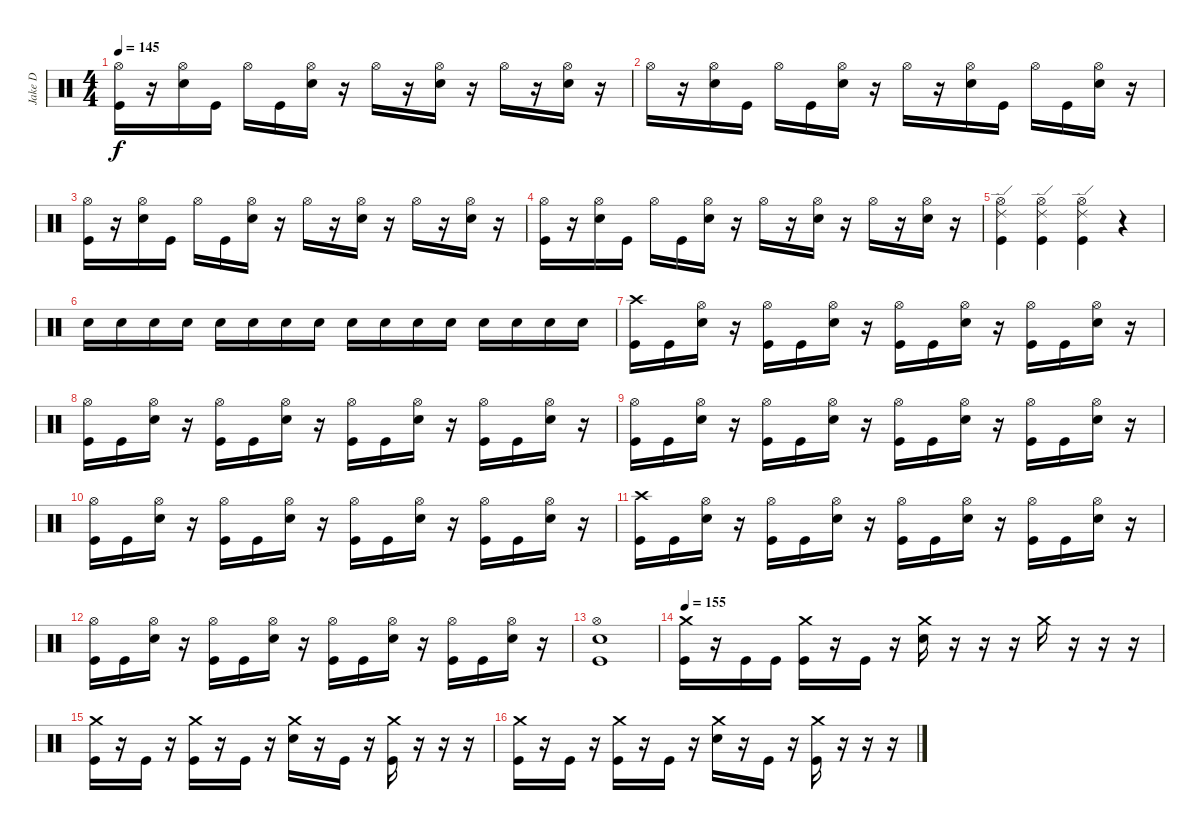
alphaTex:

\track ("Jake D" "Jake D") {instrument percussion}
\staff {score}
\articulation defaults
\ts (4 4)
\tempo 145
\clef neutral
\ks c
("Hi-Hat (open)" "Kick (hit)").16{dy f} r.16 ("Hi-Hat (open)" "Electric Snare (hit)").16 "Kick (hit)".16 "Hi-Hat (open)".16 "Kick (hit)".16 ("Hi-Hat (open)" "Electric Snare (hit)").16 r.16 "Hi-Hat (open)".16 r.16 ("Hi-Hat (open)" "Electric Snare (hit)").16 r.16 "Hi-Hat (open)".16 r.16 ("Hi-Hat (open)" "Electric Snare (hit)").16 r.16 |
"Hi-Hat (open)".16 r.16 ("Hi-Hat (open)" "Electric Snare (hit)").16 "Kick (hit)".16 "Hi-Hat (open)".16 "Kick (hit)".16 ("Hi-Hat (open)" "Electric Snare (hit)").16 r.16 "Hi-Hat (open)".16 r.16 ("Hi-Hat (open)" "Electric Snare (hit)").16 "Kick (hit)".16 "Hi-Hat (open)".16 "Kick (hit)".16 ("Hi-Hat (open)" "Electric Snare (hit)").16 r.16 |
("Hi-Hat (open)" "Kick (hit)").16 r.16 ("Hi-Hat (open)" "Electric Snare (hit)").16 "Kick (hit)".16 "Hi-Hat (open)".16 "Kick (hit)".16 ("Hi-Hat (open)" "Electric Snare (hit)").16 r.16 "Hi-Hat (open)".16 r.16 ("Hi-Hat (open)" "Electric Snare (hit)").16 r.16 "Hi-Hat (open)".16 r.16 ("Hi-Hat (open)" "Electric Snare (hit)").16 r.16 |
("Hi-Hat (open)" "Kick (hit)").16 r.16 ("Hi-Hat (open)" "Electric Snare (hit)").16 "Kick (hit)".16 "Hi-Hat (open)".16 "Kick (hit)".16 ("Hi-Hat (open)" "Electric Snare (hit)").16 r.16 "Hi-Hat (open)".16 r.16 ("Hi-Hat (open)" "Electric Snare (hit)").16 r.16 "Hi-Hat (open)".16 r.16 ("Hi-Hat (open)" "Electric Snare (hit)").16 r.16 |
("Ride (edge) 2" "Hi-Hat (open)" "Kick (hit)").4 ("Ride (edge) 2" "Hi-Hat (open)" "Kick (hit)").4 ("Ride (edge) 2" "Hi-Hat (open)" "Kick (hit)").4 r.4 |
"Electric Snare (hit)".16 "Electric Snare (hit)".16 "Electric Snare (hit)".16 "Electric Snare (hit)".16 "Electric Snare (hit)".16 "Electric Snare (hit)".16 "Electric Snare (hit)".16 "Electric Snare (hit)".16 "Electric Snare (hit)".16 "Electric Snare (hit)".16 "Electric Snare (hit)".16 "Electric Snare (hit)".16 "Electric Snare (hit)".16 "Electric Snare (hit)".16 "Electric Snare (hit)".16 "Electric Snare (hit)".16 |
("Crash high (hit)" "Kick (hit)").16 "Kick (hit)".16 ("Hi-Hat (open)" "Electric Snare (hit)").16 r.16 ("Hi-Hat (open)" "Kick (hit)").16 "Kick (hit)".16 ("Hi-Hat (open)" "Electric Snare (hit)").16 r.16 ("Hi-Hat (open)" "Kick (hit)").16 "Kick (hit)".16 ("Hi-Hat (open)" "Electric Snare (hit)").16 r.16 ("Hi-Hat (open)" "Kick (hit)").16 "Kick (hit)".16 ("Hi-Hat (open)" "Electric Snare (hit)").16 r.16 |
("Hi-Hat (open)" "Kick (hit)").16 "Kick (hit)".16 ("Hi-Hat (open)" "Electric Snare (hit)").16 r.16 ("Hi-Hat (open)" "Kick (hit)").16 "Kick (hit)".16 ("Hi-Hat (open)" "Electric Snare (hit)").16 r.16 ("Hi-Hat (open)" "Kick (hit)").16 "Kick (hit)".16 ("Hi-Hat (open)" "Electric Snare (hit)").16 r.16 ("Hi-Hat (open)" "Kick (hit)").16 "Kick (hit)".16 ("Hi-Hat (open)" "Electric Snare (hit)").16 r.16 |
("Hi-Hat (open)" "Kick (hit)").16 "Kick (hit)".16 ("Hi-Hat (open)" "Electric Snare (hit)").16 r.16 ("Hi-Hat (open)" "Kick (hit)").16 "Kick (hit)".16 ("Hi-Hat (open)" "Electric Snare (hit)").16 r.16 ("Hi-Hat (open)" "Kick (hit)").16 "Kick (hit)".16 ("Hi-Hat (open)" "Electric Snare (hit)").16 r.16 ("Hi-Hat (open)" "Kick (hit)").16 "Kick (hit)".16 ("Hi-Hat (open)" "Electric Snare (hit)").16 r.16 |
("Hi-Hat (open)" "Kick (hit)").16 "Kick (hit)".16 ("Hi-Hat (open)" "Electric Snare (hit)").16 r.16 ("Hi-Hat (open)" "Kick (hit)").16 "Kick (hit)".16 ("Hi-Hat (open)" "Electric Snare (hit)").16 r.16 ("Hi-Hat (open)" "Kick (hit)").16 "Kick (hit)".16 ("Hi-Hat (open)" "Electric Snare (hit)").16 r.16 ("Hi-Hat (open)" "Kick (hit)").16 "Kick (hit)".16 ("Hi-Hat (open)" "Electric Snare (hit)").16 r.16 |
("Crash high (hit)" "Kick (hit)").16 "Kick (hit)".16 ("Hi-Hat (open)" "Electric Snare (hit)").16 r.16 ("Hi-Hat (open)" "Kick (hit)").16 "Kick (hit)".16 ("Hi-Hat (open)" "Electric Snare (hit)").16 r.16 ("Hi-Hat (open)" "Kick (hit)").16 "Kick (hit)".16 ("Hi-Hat (open)" "Electric Snare (hit)").16 r.16 ("Hi-Hat (open)" "Kick (hit)").16 "Kick (hit)".16 ("Hi-Hat (open)" "Electric Snare (hit)").16 r.16 |
("Hi-Hat (open)" "Kick (hit)").16 "Kick (hit)".16 ("Hi-Hat (open)" "Electric Snare (hit)").16 r.16 ("Hi-Hat (open)" "Kick (hit)").16 "Kick (hit)".16 ("Hi-Hat (open)" "Electric Snare (hit)").16 r.16 ("Hi-Hat (open)" "Kick (hit)").16 "Kick (hit)".16 ("Hi-Hat (open)" "Electric Snare (hit)").16 r.16 ("Hi-Hat (open)" "Kick (hit)").16 "Kick (hit)".16 ("Hi-Hat (open)" "Electric Snare (hit)").16 r.16 |
("Hi-Hat (open)" "Electric Snare (hit)" "Kick (hit)").1 |
\tempo 155
("Crash medium (hit)" "Kick (hit)").16 r.16 "Kick (hit)".16 "Kick (hit)".16 ("Crash medium (hit)" "Kick (hit)").16 r.16 "Kick (hit)".16 r.16 ("Crash medium (hit)" "Electric Snare (hit)").16 r.16 r.16 r.16 "Crash medium (hit)".16 r.16 r.16 r.16 |
("Crash medium (hit)" "Kick (hit)").16 r.16 "Kick (hit)".16 r.16 ("Crash medium (hit)" "Kick (hit)").16 r.16 "Kick (hit)".16 r.16 ("Crash medium (hit)" "Electric Snare (hit)").16 r.16 "Kick (hit)".16 r.16 ("Crash medium (hit)" "Kick (hit)").16 r.16 r.16 r.16 |
("Crash medium (hit)" "Kick (hit)").16 r.16 "Kick (hit)".16 r.16 ("Crash medium (hit)" "Kick (hit)").16 r.16 "Kick (hit)".16 r.16 ("Crash medium (hit)" "Electric Snare (hit)").16 r.16 "Kick (hit)".16 r.16 ("Crash medium (hit)" "Kick (hit)").16 r.16 r.16 r.16
